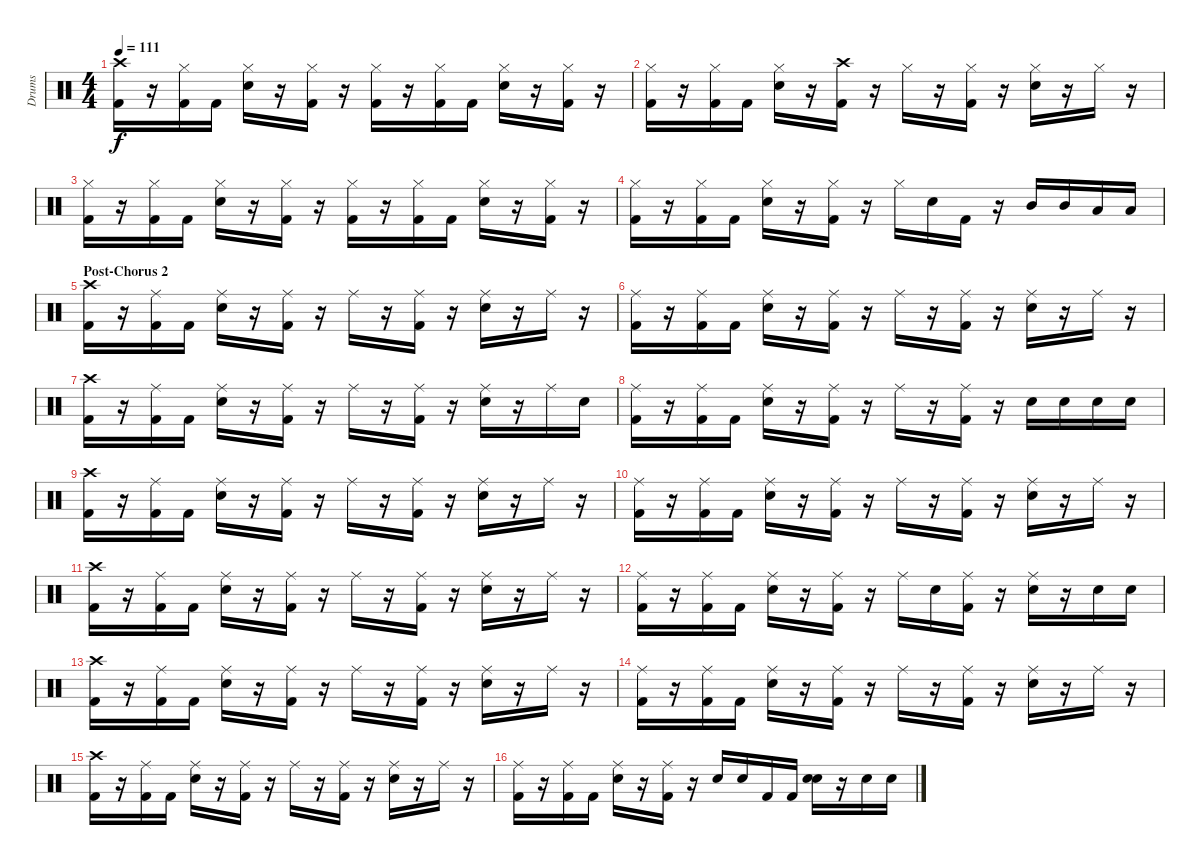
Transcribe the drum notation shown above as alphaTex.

\track ("Drums" "Drums") {instrument percussion}
\staff {score}
\articulation defaults
\ts (4 4)
\tempo 111
\clef neutral
\ks c
("Crash high (hit)" "Kick (hit) 2").16{dy f} r.16 ("Hi-Hat (closed)" "Kick (hit) 2").16 "Kick (hit) 2".16 ("Hi-Hat (closed)" "Snare (hit) 2").16 r.16 ("Hi-Hat (closed)" "Kick (hit) 2").16 r.16 ("Hi-Hat (closed)" "Kick (hit) 2").16 r.16 ("Hi-Hat (closed)" "Kick (hit) 2").16 "Kick (hit) 2".16 ("Hi-Hat (closed)" "Snare (hit) 2").16 r.16 ("Hi-Hat (closed)" "Kick (hit) 2").16 r.16 |
("Hi-Hat (closed)" "Kick (hit) 2").16 r.16 ("Hi-Hat (closed)" "Kick (hit) 2").16 "Kick (hit) 2".16 ("Hi-Hat (closed)" "Snare (hit) 2").16 r.16 ("Crash high (hit)" "Kick (hit) 2").16 r.16 "Hi-Hat (closed)".16 r.16 ("Hi-Hat (closed)" "Kick (hit) 2").16 r.16 ("Hi-Hat (closed)" "Snare (hit) 2").16 r.16 "Hi-Hat (closed)".16 r.16 |
("Hi-Hat (closed)" "Kick (hit) 2").16 r.16 ("Hi-Hat (closed)" "Kick (hit) 2").16 "Kick (hit) 2".16 ("Hi-Hat (closed)" "Snare (hit) 2").16 r.16 ("Hi-Hat (closed)" "Kick (hit) 2").16 r.16 ("Hi-Hat (closed)" "Kick (hit) 2").16 r.16 ("Hi-Hat (closed)" "Kick (hit) 2").16 "Kick (hit) 2".16 ("Hi-Hat (closed)" "Snare (hit) 2").16 r.16 ("Hi-Hat (closed)" "Kick (hit) 2").16 r.16 |
("Hi-Hat (closed)" "Kick (hit) 2").16 r.16 ("Hi-Hat (closed)" "Kick (hit) 2").16 "Kick (hit) 2".16 ("Hi-Hat (closed)" "Snare (hit) 2").16 r.16 ("Hi-Hat (closed)" "Kick (hit) 2").16 r.16 "Hi-Hat (closed)".16 "Snare (hit) 2".16 "Kick (hit) 2".16 r.16 "Mid Tom (hit)".16 "Mid Tom (hit)".16 "Low Tom (hit)".16 "Low Tom (hit)".16 |
\section ("" "Post-Chorus 2")
("Crash high (hit)" "Kick (hit) 2").16 r.16 ("Ride (middle)" "Kick (hit) 2").16 "Kick (hit) 2".16 ("Ride (middle)" "Snare (hit) 2").16 r.16 ("Ride (middle)" "Kick (hit) 2").16 r.16 "Ride (middle)".16 r.16 ("Ride (middle)" "Kick (hit) 2").16 r.16 ("Ride (middle)" "Snare (hit) 2").16 r.16 "Ride (middle)".16 r.16 |
("Ride (middle)" "Kick (hit) 2").16 r.16 ("Ride (middle)" "Kick (hit) 2").16 "Kick (hit) 2".16 ("Ride (middle)" "Snare (hit) 2").16 r.16 ("Ride (middle)" "Kick (hit) 2").16 r.16 "Ride (middle)".16 r.16 ("Ride (middle)" "Kick (hit) 2").16 r.16 ("Ride (middle)" "Snare (hit) 2").16 r.16 "Ride (middle)".16 r.16 |
("Crash high (hit)" "Kick (hit) 2").16 r.16 ("Ride (middle)" "Kick (hit) 2").16 "Kick (hit) 2".16 ("Ride (middle)" "Snare (hit) 2").16 r.16 ("Ride (middle)" "Kick (hit) 2").16 r.16 "Ride (middle)".16 r.16 ("Ride (middle)" "Kick (hit) 2").16 r.16 ("Ride (middle)" "Snare (hit) 2").16 r.16 "Ride (middle)".16 "Snare (hit) 2".16 |
("Ride (middle)" "Kick (hit) 2").16 r.16 ("Ride (middle)" "Kick (hit) 2").16 "Kick (hit) 2".16 ("Ride (middle)" "Snare (hit) 2").16 r.16 ("Ride (middle)" "Kick (hit) 2").16 r.16 "Ride (middle)".16 r.16 ("Ride (middle)" "Kick (hit) 2").16 r.16 "Snare (hit) 2".16 "Snare (hit) 2".16 "Snare (hit) 2".16 "Snare (hit) 2".16 |
("Crash high (hit)" "Kick (hit) 2").16 r.16 ("Ride (middle)" "Kick (hit) 2").16 "Kick (hit) 2".16 ("Ride (middle)" "Snare (hit) 2").16 r.16 ("Ride (middle)" "Kick (hit) 2").16 r.16 "Ride (middle)".16 r.16 ("Ride (middle)" "Kick (hit) 2").16 r.16 ("Ride (middle)" "Snare (hit) 2").16 r.16 "Ride (middle)".16 r.16 |
("Ride (middle)" "Kick (hit) 2").16 r.16 ("Ride (middle)" "Kick (hit) 2").16 "Kick (hit) 2".16 ("Ride (middle)" "Snare (hit) 2").16 r.16 ("Ride (middle)" "Kick (hit) 2").16 r.16 "Ride (middle)".16 r.16 ("Ride (middle)" "Kick (hit) 2").16 r.16 ("Ride (middle)" "Snare (hit) 2").16 r.16 "Ride (middle)".16 r.16 |
("Crash high (hit)" "Kick (hit) 2").16 r.16 ("Ride (middle)" "Kick (hit) 2").16 "Kick (hit) 2".16 ("Ride (middle)" "Snare (hit) 2").16 r.16 ("Ride (middle)" "Kick (hit) 2").16 r.16 "Ride (middle)".16 r.16 ("Ride (middle)" "Kick (hit) 2").16 r.16 ("Ride (middle)" "Snare (hit) 2").16 r.16 "Ride (middle)".16 r.16 |
("Ride (middle)" "Kick (hit) 2").16 r.16 ("Ride (middle)" "Kick (hit) 2").16 "Kick (hit) 2".16 ("Ride (middle)" "Snare (hit) 2").16 r.16 ("Ride (middle)" "Kick (hit) 2").16 r.16 "Ride (middle)".16 "Snare (hit) 2".16 ("Ride (middle)" "Kick (hit) 2").16 r.16 ("Ride (middle)" "Snare (hit) 2").16 r.16 "Snare (hit) 2".16 "Snare (hit) 2".16 |
("Crash high (hit)" "Kick (hit) 2").16 r.16 ("Ride (middle)" "Kick (hit) 2").16 "Kick (hit) 2".16 ("Ride (middle)" "Snare (hit) 2").16 r.16 ("Ride (middle)" "Kick (hit) 2").16 r.16 "Ride (middle)".16 r.16 ("Ride (middle)" "Kick (hit) 2").16 r.16 ("Ride (middle)" "Snare (hit) 2").16 r.16 "Ride (middle)".16 r.16 |
("Ride (middle)" "Kick (hit) 2").16 r.16 ("Ride (middle)" "Kick (hit) 2").16 "Kick (hit) 2".16 ("Ride (middle)" "Snare (hit) 2").16 r.16 ("Ride (middle)" "Kick (hit) 2").16 r.16 "Ride (middle)".16 r.16 ("Ride (middle)" "Kick (hit) 2").16 r.16 ("Ride (middle)" "Snare (hit) 2").16 r.16 "Ride (middle)".16 r.16 |
("Crash high (hit)" "Kick (hit) 2").16 r.16 ("Ride (middle)" "Kick (hit) 2").16 "Kick (hit) 2".16 ("Ride (middle)" "Snare (hit) 2").16 r.16 ("Ride (middle)" "Kick (hit) 2").16 r.16 "Ride (middle)".16 r.16 ("Ride (middle)" "Kick (hit) 2").16 r.16 ("Ride (middle)" "Snare (hit) 2").16 r.16 "Ride (middle)".16 r.16 |
("Ride (middle)" "Kick (hit) 2").16 r.16 ("Ride (middle)" "Kick (hit) 2").16 "Kick (hit) 2".16 ("Ride (middle)" "Snare (hit) 2").16 r.16 ("Ride (middle)" "Kick (hit) 2").16 r.16 "Snare (hit) 2".16 "Snare (hit) 2".16 "Kick (hit) 2".16 "Kick (hit) 2".16 ("Electric Snare (hit)" "Snare (hit) 2").16 r.16 "Snare (hit) 2".16 "Snare (hit) 2".16
